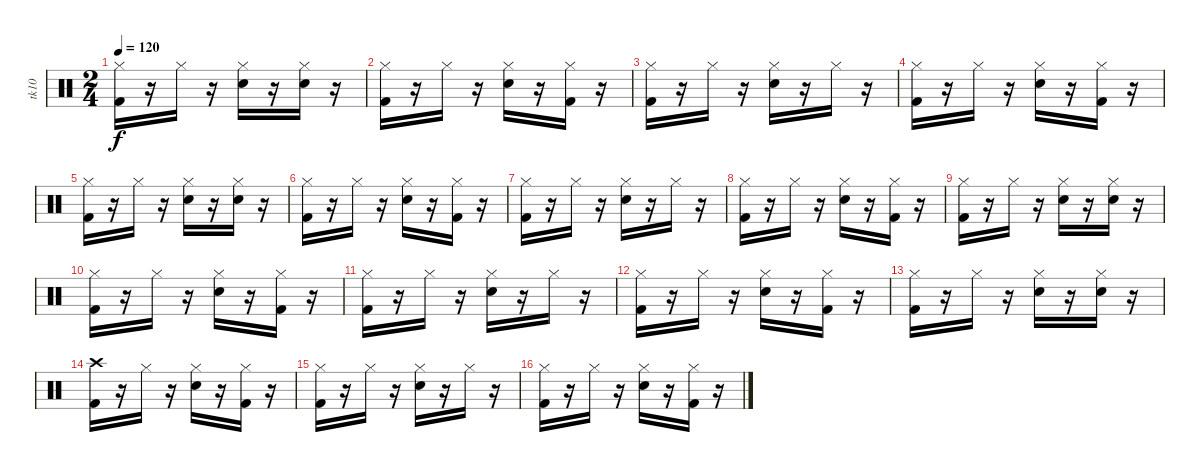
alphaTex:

\track ("tk10" "tk10") {instrument percussion}
\staff {score}
\articulation defaults
\ts (2 4)
\tempo 120
\clef neutral
\ks c
("Hi-Hat (closed)" "Kick (hit) 2").16{dy f} r.16 "Hi-Hat (closed)".16 r.16 ("Hi-Hat (closed)" "Snare (hit) 2").16 r.16 ("Hi-Hat (closed)" "Snare (hit) 2").16 r.16 |
("Hi-Hat (closed)" "Kick (hit) 2").16 r.16 "Hi-Hat (closed)".16 r.16 ("Snare (hit) 2" "Hi-Hat (closed)").16 r.16 ("Hi-Hat (closed)" "Kick (hit) 2").16 r.16 |
("Hi-Hat (closed)" "Kick (hit) 2").16 r.16 "Hi-Hat (closed)".16 r.16 ("Snare (hit) 2" "Hi-Hat (closed)").16 r.16 "Hi-Hat (closed)".16 r.16 |
("Kick (hit) 2" "Hi-Hat (closed)").16 r.16 "Hi-Hat (closed)".16 r.16 ("Hi-Hat (closed)" "Snare (hit) 2").16 r.16 ("Kick (hit) 2" "Hi-Hat (closed)").16 r.16 |
("Kick (hit) 2" "Hi-Hat (closed)").16 r.16 "Hi-Hat (closed)".16 r.16 ("Snare (hit) 2" "Hi-Hat (closed)").16 r.16 ("Snare (hit) 2" "Hi-Hat (closed)").16 r.16 |
("Hi-Hat (closed)" "Kick (hit) 2").16 r.16 "Hi-Hat (closed)".16 r.16 ("Hi-Hat (closed)" "Snare (hit) 2").16 r.16 ("Kick (hit) 2" "Hi-Hat (closed)").16 r.16 |
("Hi-Hat (closed)" "Kick (hit) 2").16 r.16 "Hi-Hat (closed)".16 r.16 ("Hi-Hat (closed)" "Snare (hit) 2").16 r.16 "Hi-Hat (closed)".16 r.16 |
("Hi-Hat (closed)" "Kick (hit) 2").16 r.16 "Hi-Hat (closed)".16 r.16 ("Snare (hit) 2" "Hi-Hat (closed)").16 r.16 ("Hi-Hat (closed)" "Kick (hit) 2").16 r.16 |
("Hi-Hat (closed)" "Kick (hit) 2").16 r.16 "Hi-Hat (closed)".16 r.16 ("Snare (hit) 2" "Hi-Hat (closed)").16 r.16 ("Hi-Hat (closed)" "Snare (hit) 2").16 r.16 |
("Kick (hit) 2" "Hi-Hat (closed)").16 r.16 "Hi-Hat (closed)".16 r.16 ("Snare (hit) 2" "Hi-Hat (closed)").16 r.16 ("Kick (hit) 2" "Hi-Hat (closed)").16 r.16 |
("Hi-Hat (closed)" "Kick (hit) 2").16 r.16 "Hi-Hat (closed)".16 r.16 ("Snare (hit) 2" "Hi-Hat (closed)").16 r.16 "Hi-Hat (closed)".16 r.16 |
("Hi-Hat (closed)" "Kick (hit) 2").16 r.16 "Hi-Hat (closed)".16 r.16 ("Snare (hit) 2" "Hi-Hat (closed)").16 r.16 ("Kick (hit) 2" "Hi-Hat (closed)").16 r.16 |
("Hi-Hat (closed)" "Kick (hit) 2").16 r.16 "Hi-Hat (closed)".16 r.16 ("Hi-Hat (closed)" "Snare (hit) 2").16 r.16 ("Hi-Hat (closed)" "Snare (hit) 2").16 r.16 |
("Kick (hit) 2" "Crash high (hit)").16 r.16 "Hi-Hat (closed)".16 r.16 ("Snare (hit) 2" "Hi-Hat (closed)").16 r.16 ("Kick (hit) 2" "Hi-Hat (closed)").16 r.16 |
("Hi-Hat (closed)" "Kick (hit) 2").16 r.16 "Hi-Hat (closed)".16 r.16 ("Hi-Hat (closed)" "Snare (hit) 2").16 r.16 "Hi-Hat (closed)".16 r.16 |
("Hi-Hat (closed)" "Kick (hit) 2").16 r.16 "Hi-Hat (closed)".16 r.16 ("Hi-Hat (closed)" "Snare (hit) 2").16 r.16 ("Kick (hit) 2" "Hi-Hat (closed)").16 r.16
